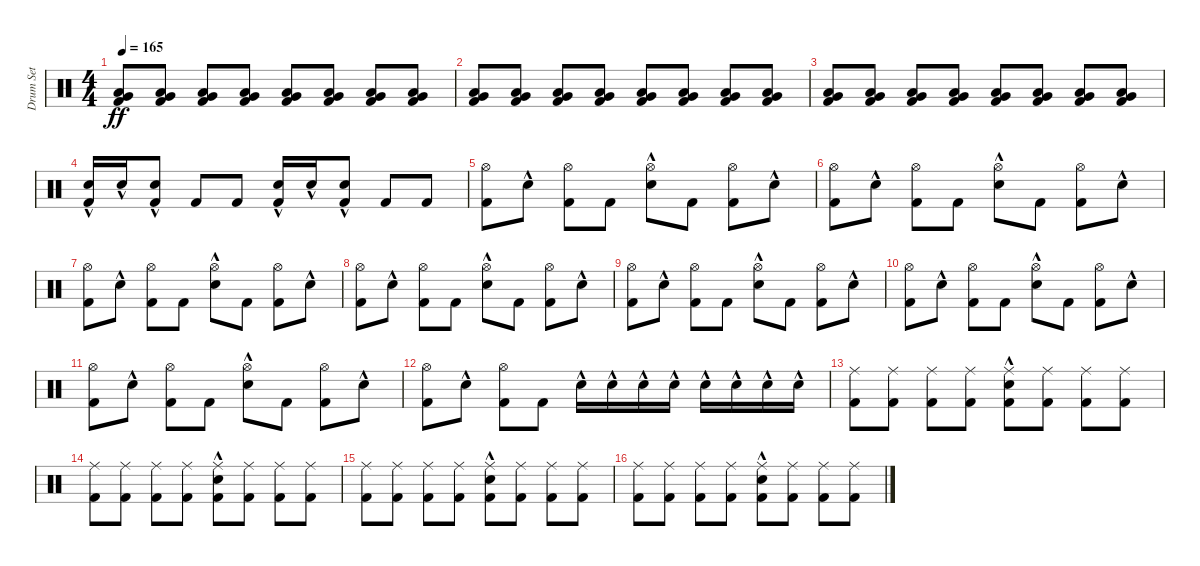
\track ("Drum Set" "Drum Set") {instrument percussion}
\staff {score}
\articulation defaults
\ts (4 4)
\tempo 165
\clef neutral
\ks c
("Very Low Tom (hit)" "Low Floor Tom (hit)" "Kick (hit) 2").8{dy ff} ("Very Low Tom (hit)" "Low Floor Tom (hit)" "Kick (hit) 2").8 ("Very Low Tom (hit)" "Low Floor Tom (hit)" "Kick (hit) 2").8 ("Very Low Tom (hit)" "Low Floor Tom (hit)" "Kick (hit) 2").8 ("Very Low Tom (hit)" "Low Floor Tom (hit)" "Kick (hit) 2").8 ("Very Low Tom (hit)" "Low Floor Tom (hit)" "Kick (hit) 2").8 ("Very Low Tom (hit)" "Low Floor Tom (hit)" "Kick (hit) 2").8 ("Very Low Tom (hit)" "Low Floor Tom (hit)" "Kick (hit) 2").8 |
("Very Low Tom (hit)" "Low Floor Tom (hit)" "Kick (hit) 2").8 ("Very Low Tom (hit)" "Low Floor Tom (hit)" "Kick (hit) 2").8 ("Very Low Tom (hit)" "Low Floor Tom (hit)" "Kick (hit) 2").8 ("Very Low Tom (hit)" "Low Floor Tom (hit)" "Kick (hit) 2").8 ("Very Low Tom (hit)" "Low Floor Tom (hit)" "Kick (hit) 2").8 ("Very Low Tom (hit)" "Low Floor Tom (hit)" "Kick (hit) 2").8 ("Very Low Tom (hit)" "Low Floor Tom (hit)" "Kick (hit) 2").8 ("Very Low Tom (hit)" "Low Floor Tom (hit)" "Kick (hit) 2").8 |
("Very Low Tom (hit)" "Low Floor Tom (hit)" "Kick (hit) 2").8 ("Very Low Tom (hit)" "Low Floor Tom (hit)" "Kick (hit) 2").8 ("Very Low Tom (hit)" "Low Floor Tom (hit)" "Kick (hit) 2").8 ("Very Low Tom (hit)" "Low Floor Tom (hit)" "Kick (hit) 2").8 ("Very Low Tom (hit)" "Low Floor Tom (hit)" "Kick (hit) 2").8 ("Very Low Tom (hit)" "Low Floor Tom (hit)" "Kick (hit) 2").8 ("Very Low Tom (hit)" "Low Floor Tom (hit)" "Kick (hit) 2").8 ("Very Low Tom (hit)" "Low Floor Tom (hit)" "Kick (hit) 2").8 |
("Snare (hit) 2"{hac} "Kick (hit) 2").16 "Snare (hit) 2"{hac}.16 ("Snare (hit) 2"{hac} "Kick (hit) 2").8 "Kick (hit) 2".8 "Kick (hit) 2".8 ("Snare (hit) 2"{hac} "Kick (hit) 2").16 "Snare (hit) 2"{hac}.16 ("Snare (hit) 2"{hac} "Kick (hit) 2").8 "Kick (hit) 2".8 "Kick (hit) 2".8 |
("Hi-Hat (open)" "Kick (hit) 2").8 "Snare (hit) 2"{hac}.8 ("Hi-Hat (open)" "Kick (hit) 2").8 "Kick (hit) 2".8 ("Hi-Hat (open)" "Snare (hit) 2"{hac}).8 "Kick (hit) 2".8 ("Hi-Hat (open)" "Kick (hit) 2").8 "Snare (hit) 2"{hac}.8 |
("Hi-Hat (open)" "Kick (hit) 2").8 "Snare (hit) 2"{hac}.8 ("Hi-Hat (open)" "Kick (hit) 2").8 "Kick (hit) 2".8 ("Hi-Hat (open)" "Snare (hit) 2"{hac}).8 "Kick (hit) 2".8 ("Hi-Hat (open)" "Kick (hit) 2").8 "Snare (hit) 2"{hac}.8 |
("Hi-Hat (open)" "Kick (hit) 2").8 "Snare (hit) 2"{hac}.8 ("Hi-Hat (open)" "Kick (hit) 2").8 "Kick (hit) 2".8 ("Hi-Hat (open)" "Snare (hit) 2"{hac}).8 "Kick (hit) 2".8 ("Hi-Hat (open)" "Kick (hit) 2").8 "Snare (hit) 2"{hac}.8 |
("Hi-Hat (open)" "Kick (hit) 2").8 "Snare (hit) 2"{hac}.8 ("Hi-Hat (open)" "Kick (hit) 2").8 "Kick (hit) 2".8 ("Hi-Hat (open)" "Snare (hit) 2"{hac}).8 "Kick (hit) 2".8 ("Hi-Hat (open)" "Kick (hit) 2").8 "Snare (hit) 2"{hac}.8 |
("Hi-Hat (open)" "Kick (hit) 2").8 "Snare (hit) 2"{hac}.8 ("Hi-Hat (open)" "Kick (hit) 2").8 "Kick (hit) 2".8 ("Hi-Hat (open)" "Snare (hit) 2"{hac}).8 "Kick (hit) 2".8 ("Hi-Hat (open)" "Kick (hit) 2").8 "Snare (hit) 2"{hac}.8 |
("Hi-Hat (open)" "Kick (hit) 2").8 "Snare (hit) 2"{hac}.8 ("Hi-Hat (open)" "Kick (hit) 2").8 "Kick (hit) 2".8 ("Hi-Hat (open)" "Snare (hit) 2"{hac}).8 "Kick (hit) 2".8 ("Hi-Hat (open)" "Kick (hit) 2").8 "Snare (hit) 2"{hac}.8 |
("Hi-Hat (open)" "Kick (hit) 2").8 "Snare (hit) 2"{hac}.8 ("Hi-Hat (open)" "Kick (hit) 2").8 "Kick (hit) 2".8 ("Hi-Hat (open)" "Snare (hit) 2"{hac}).8 "Kick (hit) 2".8 ("Hi-Hat (open)" "Kick (hit) 2").8 "Snare (hit) 2"{hac}.8 |
("Hi-Hat (open)" "Kick (hit) 2").8 "Snare (hit) 2"{hac}.8 ("Hi-Hat (open)" "Kick (hit) 2").8 "Kick (hit) 2".8 "Snare (hit) 2"{hac}.16 "Snare (hit) 2"{hac}.16 "Snare (hit) 2"{hac}.16 "Snare (hit) 2"{hac}.16 "Snare (hit) 2"{hac}.16 "Snare (hit) 2"{hac}.16 "Snare (hit) 2"{hac}.16 "Snare (hit) 2"{hac}.16 |
("Ride (middle)" "Kick (hit) 2").8 ("Ride (middle)" "Kick (hit) 2").8 ("Ride (middle)" "Kick (hit) 2").8 ("Ride (middle)" "Kick (hit) 2").8 ("Ride (middle)" "Snare (hit) 2"{hac} "Kick (hit) 2").8 ("Ride (middle)" "Kick (hit) 2").8 ("Ride (middle)" "Kick (hit) 2").8 ("Ride (middle)" "Kick (hit) 2").8 |
("Ride (middle)" "Kick (hit) 2").8 ("Ride (middle)" "Kick (hit) 2").8 ("Ride (middle)" "Kick (hit) 2").8 ("Ride (middle)" "Kick (hit) 2").8 ("Ride (middle)" "Snare (hit) 2"{hac} "Kick (hit) 2").8 ("Ride (middle)" "Kick (hit) 2").8 ("Ride (middle)" "Kick (hit) 2").8 ("Ride (middle)" "Kick (hit) 2").8 |
("Ride (middle)" "Kick (hit) 2").8 ("Ride (middle)" "Kick (hit) 2").8 ("Ride (middle)" "Kick (hit) 2").8 ("Ride (middle)" "Kick (hit) 2").8 ("Ride (middle)" "Snare (hit) 2"{hac} "Kick (hit) 2").8 ("Ride (middle)" "Kick (hit) 2").8 ("Ride (middle)" "Kick (hit) 2").8 ("Ride (middle)" "Kick (hit) 2").8 |
("Ride (middle)" "Kick (hit) 2").8 ("Ride (middle)" "Kick (hit) 2").8 ("Ride (middle)" "Kick (hit) 2").8 ("Ride (middle)" "Kick (hit) 2").8 ("Ride (middle)" "Snare (hit) 2"{hac} "Kick (hit) 2").8 ("Ride (middle)" "Kick (hit) 2").8 ("Ride (middle)" "Kick (hit) 2").8 ("Ride (middle)" "Kick (hit) 2").8
